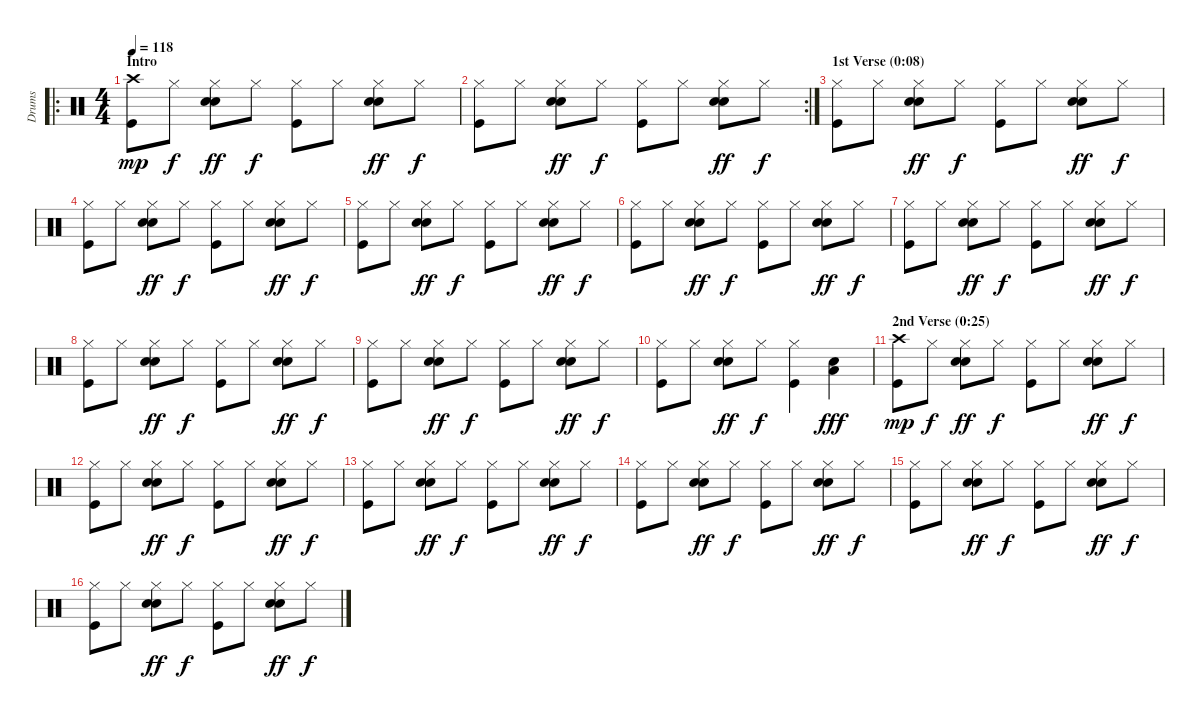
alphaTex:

\track ("Drums" "Drums") {instrument percussion}
\staff {score}
\articulation defaults
\ro
\ts (4 4)
\section ("" "Intro")
\tempo 118
\clef neutral
\ks c
("Crash high (hit)" "Kick (hit)").8{dy mp} "Hi-Hat (closed)".8{dy f} ("Hi-Hat (closed)" "Electric Snare (hit)" "Snare (hit) 2").8{dy ff} "Hi-Hat (closed)".8{dy f} ("Hi-Hat (closed)" "Kick (hit)").8 "Hi-Hat (closed)".8 ("Hi-Hat (closed)" "Electric Snare (hit)" "Snare (hit) 2").8{dy ff} "Hi-Hat (closed)".8{dy f} |
\rc 2
("Hi-Hat (closed)" "Kick (hit)").8 "Hi-Hat (closed)".8 ("Hi-Hat (closed)" "Electric Snare (hit)" "Snare (hit) 2").8{dy ff} "Hi-Hat (closed)".8{dy f} ("Hi-Hat (closed)" "Kick (hit)").8 "Hi-Hat (closed)".8 ("Hi-Hat (closed)" "Electric Snare (hit)" "Snare (hit) 2").8{dy ff} "Hi-Hat (closed)".8{dy f} |
\section ("" "1st Verse (0:08)")
("Hi-Hat (closed)" "Kick (hit)").8 "Hi-Hat (closed)".8 ("Hi-Hat (closed)" "Electric Snare (hit)" "Snare (hit) 2").8{dy ff} "Hi-Hat (closed)".8{dy f} ("Hi-Hat (closed)" "Kick (hit)").8 "Hi-Hat (closed)".8 ("Hi-Hat (closed)" "Electric Snare (hit)" "Snare (hit) 2").8{dy ff} "Hi-Hat (closed)".8{dy f} |
("Hi-Hat (closed)" "Kick (hit)").8 "Hi-Hat (closed)".8 ("Hi-Hat (closed)" "Electric Snare (hit)" "Snare (hit) 2").8{dy ff} "Hi-Hat (closed)".8{dy f} ("Hi-Hat (closed)" "Kick (hit)").8 "Hi-Hat (closed)".8 ("Hi-Hat (closed)" "Electric Snare (hit)" "Snare (hit) 2").8{dy ff} "Hi-Hat (closed)".8{dy f} |
("Hi-Hat (closed)" "Kick (hit)").8 "Hi-Hat (closed)".8 ("Hi-Hat (closed)" "Electric Snare (hit)" "Snare (hit) 2").8{dy ff} "Hi-Hat (closed)".8{dy f} ("Hi-Hat (closed)" "Kick (hit)").8 "Hi-Hat (closed)".8 ("Hi-Hat (closed)" "Electric Snare (hit)" "Snare (hit) 2").8{dy ff} "Hi-Hat (closed)".8{dy f} |
("Hi-Hat (closed)" "Kick (hit)").8 "Hi-Hat (closed)".8 ("Hi-Hat (closed)" "Electric Snare (hit)" "Snare (hit) 2").8{dy ff} "Hi-Hat (closed)".8{dy f} ("Hi-Hat (closed)" "Kick (hit)").8 "Hi-Hat (closed)".8 ("Hi-Hat (closed)" "Electric Snare (hit)" "Snare (hit) 2").8{dy ff} "Hi-Hat (closed)".8{dy f} |
("Hi-Hat (closed)" "Kick (hit)").8 "Hi-Hat (closed)".8 ("Hi-Hat (closed)" "Electric Snare (hit)" "Snare (hit) 2").8{dy ff} "Hi-Hat (closed)".8{dy f} ("Hi-Hat (closed)" "Kick (hit)").8 "Hi-Hat (closed)".8 ("Hi-Hat (closed)" "Electric Snare (hit)" "Snare (hit) 2").8{dy ff} "Hi-Hat (closed)".8{dy f} |
("Hi-Hat (closed)" "Kick (hit)").8 "Hi-Hat (closed)".8 ("Hi-Hat (closed)" "Electric Snare (hit)" "Snare (hit) 2").8{dy ff} "Hi-Hat (closed)".8{dy f} ("Hi-Hat (closed)" "Kick (hit)").8 "Hi-Hat (closed)".8 ("Hi-Hat (closed)" "Electric Snare (hit)" "Snare (hit) 2").8{dy ff} "Hi-Hat (closed)".8{dy f} |
("Hi-Hat (closed)" "Kick (hit)").8 "Hi-Hat (closed)".8 ("Hi-Hat (closed)" "Electric Snare (hit)" "Snare (hit) 2").8{dy ff} "Hi-Hat (closed)".8{dy f} ("Hi-Hat (closed)" "Kick (hit)").8 "Hi-Hat (closed)".8 ("Hi-Hat (closed)" "Electric Snare (hit)" "Snare (hit) 2").8{dy ff} "Hi-Hat (closed)".8{dy f} |
("Hi-Hat (closed)" "Kick (hit)").8 "Hi-Hat (closed)".8 ("Hi-Hat (closed)" "Electric Snare (hit)" "Snare (hit) 2").8{dy ff} "Hi-Hat (closed)".8{dy f} ("Hi-Hat (closed)" "Kick (hit)").4 ("Electric Snare (hit)" "Low Floor Tom (hit)").4{dy fff} |
\section ("" "2nd Verse (0:25)")
("Crash high (hit)" "Kick (hit)").8{dy mp} "Hi-Hat (closed)".8{dy f} ("Hi-Hat (closed)" "Electric Snare (hit)" "Snare (hit) 2").8{dy ff} "Hi-Hat (closed)".8{dy f} ("Hi-Hat (closed)" "Kick (hit)").8 "Hi-Hat (closed)".8 ("Hi-Hat (closed)" "Electric Snare (hit)" "Snare (hit) 2").8{dy ff} "Hi-Hat (closed)".8{dy f} |
("Hi-Hat (closed)" "Kick (hit)").8 "Hi-Hat (closed)".8 ("Hi-Hat (closed)" "Electric Snare (hit)" "Snare (hit) 2").8{dy ff} "Hi-Hat (closed)".8{dy f} ("Hi-Hat (closed)" "Kick (hit)").8 "Hi-Hat (closed)".8 ("Hi-Hat (closed)" "Electric Snare (hit)" "Snare (hit) 2").8{dy ff} "Hi-Hat (closed)".8{dy f} |
("Hi-Hat (closed)" "Kick (hit)").8 "Hi-Hat (closed)".8 ("Hi-Hat (closed)" "Electric Snare (hit)" "Snare (hit) 2").8{dy ff} "Hi-Hat (closed)".8{dy f} ("Hi-Hat (closed)" "Kick (hit)").8 "Hi-Hat (closed)".8 ("Hi-Hat (closed)" "Electric Snare (hit)" "Snare (hit) 2").8{dy ff} "Hi-Hat (closed)".8{dy f} |
("Hi-Hat (closed)" "Kick (hit)").8 "Hi-Hat (closed)".8 ("Hi-Hat (closed)" "Electric Snare (hit)" "Snare (hit) 2").8{dy ff} "Hi-Hat (closed)".8{dy f} ("Hi-Hat (closed)" "Kick (hit)").8 "Hi-Hat (closed)".8 ("Hi-Hat (closed)" "Electric Snare (hit)" "Snare (hit) 2").8{dy ff} "Hi-Hat (closed)".8{dy f} |
("Hi-Hat (closed)" "Kick (hit)").8 "Hi-Hat (closed)".8 ("Hi-Hat (closed)" "Electric Snare (hit)" "Snare (hit) 2").8{dy ff} "Hi-Hat (closed)".8{dy f} ("Hi-Hat (closed)" "Kick (hit)").8 "Hi-Hat (closed)".8 ("Hi-Hat (closed)" "Electric Snare (hit)" "Snare (hit) 2").8{dy ff} "Hi-Hat (closed)".8{dy f} |
("Hi-Hat (closed)" "Kick (hit)").8 "Hi-Hat (closed)".8 ("Hi-Hat (closed)" "Electric Snare (hit)" "Snare (hit) 2").8{dy ff} "Hi-Hat (closed)".8{dy f} ("Hi-Hat (closed)" "Kick (hit)").8 "Hi-Hat (closed)".8 ("Hi-Hat (closed)" "Electric Snare (hit)" "Snare (hit) 2").8{dy ff} "Hi-Hat (closed)".8{dy f}
